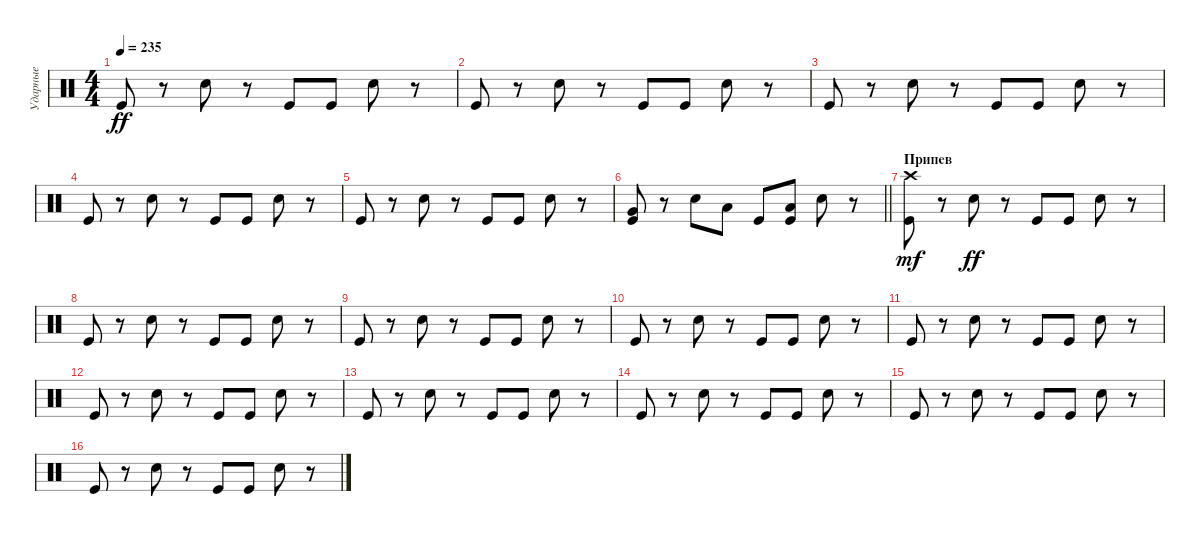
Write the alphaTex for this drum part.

\track ("Ударные" "Ударные") {instrument percussion}
\staff {score}
\articulation defaults
\ts (4 4)
\tempo 235
\clef neutral
\ks c "Kick (hit)".8{dy ff}
r.8 "Snare (hit) 2".8 r.8 "Kick (hit)".8 "Kick (hit)".8 "Snare (hit) 2".8 r.8 |
"Kick (hit)".8 r.8 "Snare (hit) 2".8 r.8 "Kick (hit)".8 "Kick (hit)".8 "Snare (hit) 2".8 r.8 |
"Kick (hit)".8 r.8 "Snare (hit) 2".8 r.8 "Kick (hit)".8 "Kick (hit)".8 "Snare (hit) 2".8 r.8 |
"Kick (hit)".8 r.8 "Snare (hit) 2".8 r.8 "Kick (hit)".8 "Kick (hit)".8 "Snare (hit) 2".8 r.8 |
"Kick (hit)".8 r.8 "Snare (hit) 2".8 r.8 "Kick (hit)".8 "Kick (hit)".8 "Snare (hit) 2".8 r.8 |
\barLineRight lightlight
("Kick (hit)" "Very Low Tom (hit)").8 r.8 "Snare (hit) 2".8 "Low Tom (hit)".8 "Kick (hit)".8 ("Kick (hit)" "Low Tom (hit)").8 "Snare (hit) 2".8 r.8 |
\section ("" "Припев")
("Kick (hit)" "Crash high (hit)").8{dy mf} r.8 "Snare (hit) 2".8{dy ff} r.8 "Kick (hit)".8 "Kick (hit)".8 "Snare (hit) 2".8 r.8 |
"Kick (hit)".8 r.8 "Snare (hit) 2".8 r.8 "Kick (hit)".8 "Kick (hit)".8 "Snare (hit) 2".8 r.8 |
"Kick (hit)".8 r.8 "Snare (hit) 2".8 r.8 "Kick (hit)".8 "Kick (hit)".8 "Snare (hit) 2".8 r.8 |
"Kick (hit)".8 r.8 "Snare (hit) 2".8 r.8 "Kick (hit)".8 "Kick (hit)".8 "Snare (hit) 2".8 r.8 |
"Kick (hit)".8 r.8 "Snare (hit) 2".8 r.8 "Kick (hit)".8 "Kick (hit)".8 "Snare (hit) 2".8 r.8 |
"Kick (hit)".8 r.8 "Snare (hit) 2".8 r.8 "Kick (hit)".8 "Kick (hit)".8 "Snare (hit) 2".8 r.8 |
"Kick (hit)".8 r.8 "Snare (hit) 2".8 r.8 "Kick (hit)".8 "Kick (hit)".8 "Snare (hit) 2".8 r.8 |
"Kick (hit)".8 r.8 "Snare (hit) 2".8 r.8 "Kick (hit)".8 "Kick (hit)".8 "Snare (hit) 2".8 r.8 |
"Kick (hit)".8 r.8 "Snare (hit) 2".8 r.8 "Kick (hit)".8 "Kick (hit)".8 "Snare (hit) 2".8 r.8 |
"Kick (hit)".8 r.8 "Snare (hit) 2".8 r.8 "Kick (hit)".8 "Kick (hit)".8 "Snare (hit) 2".8 r.8
